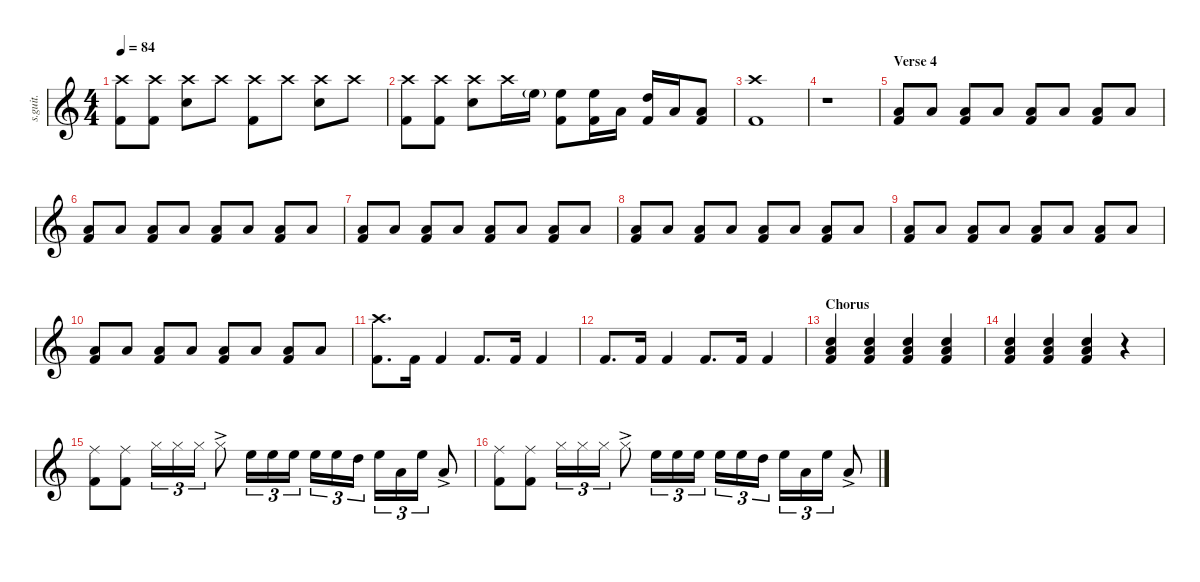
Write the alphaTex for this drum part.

\defaultSystemsLayout 4
\hideDynamics
\bracketExtendMode nobrackets
\track ("Ringo Starr - Drums" "s.guit.") {instrument percussion}
\staff {score}
\articulation defaults
\ts (4 4)
\tempo 84
\clef g2
\ks c
("Crash high (hit)" "Kick (hit) 2").8{lyrics (0 "") lyrics (1 "") lyrics (2 "") lyrics (3 "") lyrics (4 "") dy f} ("Kick (hit) 2" "Crash high (hit)").8{lyrics (0 "") lyrics (1 "") lyrics (2 "") lyrics (3 "") lyrics (4 "")} ("Crash high (hit)" "Snare (hit) 2").8{lyrics (0 "") lyrics (1 "") lyrics (2 "") lyrics (3 "") lyrics (4 "")} "Crash high (hit)".8{lyrics (0 "") lyrics (1 "") lyrics (2 "") lyrics (3 "") lyrics (4 "") dy mf} ("Crash high (hit)" "Kick (hit) 2").8{lyrics (0 "") lyrics (1 "") lyrics (2 "") lyrics (3 "") lyrics (4 "") dy f} "Crash high (hit)".8{lyrics (0 "") lyrics (1 "") lyrics (2 "") lyrics (3 "") lyrics (4 "") dy mf} ("Crash high (hit)" "Snare (hit) 2").8{lyrics (0 "") lyrics (1 "") lyrics (2 "") lyrics (3 "") lyrics (4 "") dy f} "Crash high (hit)".8{lyrics (0 "") lyrics (1 "") lyrics (2 "") lyrics (3 "") lyrics (4 "") dy mf} |
("Crash high (hit)" "Kick (hit) 2").8{lyrics (0 "") lyrics (1 "") lyrics (2 "") lyrics (3 "") lyrics (4 "") dy f} ("Kick (hit) 2" "Crash high (hit)").8{lyrics (0 "") lyrics (1 "") lyrics (2 "") lyrics (3 "") lyrics (4 "")} ("Crash high (hit)" "Snare (hit) 2").8{lyrics (0 "") lyrics (1 "") lyrics (2 "") lyrics (3 "") lyrics (4 "")} "Crash high (hit)".16{lyrics (0 "") lyrics (1 "") lyrics (2 "") lyrics (3 "") lyrics (4 "") dy mf} "High Floor Tom (hit)"{g}.16{lyrics (0 "") lyrics (1 "") lyrics (2 "") lyrics (3 "") lyrics (4 "") dy p} ("Kick (hit) 2" "High Floor Tom (hit)").8{lyrics (0 "") lyrics (1 "") lyrics (2 "") lyrics (3 "") lyrics (4 "")} ("Kick (hit) 2" "High Floor Tom (hit)").16{lyrics (0 "") lyrics (1 "") lyrics (2 "") lyrics (3 "") lyrics (4 "") dy mf} "Low Tom (hit)".16{lyrics (0 "") lyrics (1 "") lyrics (2 "") lyrics (3 "") lyrics (4 "")} ("Kick (hit) 2" "High Tom (hit)").16{lyrics (0 "") lyrics (1 "") lyrics (2 "") lyrics (3 "") lyrics (4 "")} "Low Tom (hit)".16{lyrics (0 "") lyrics (1 "") lyrics (2 "") lyrics (3 "") lyrics (4 "")} ("Kick (hit) 2" "Low Tom (hit)").8{lyrics (0 "") lyrics (1 "") lyrics (2 "") lyrics (3 "") lyrics (4 "")} |
("Crash high (hit)" "Kick (hit) 2").1{lyrics (0 "") lyrics (1 "") lyrics (2 "") lyrics (3 "") lyrics (4 "") dy f} |
r.1 |
\section ("" "Verse 4")
("Kick (hit) 2" "Low Tom (hit)").8{lyrics (0 "") lyrics (1 "") lyrics (2 "") lyrics (3 "") lyrics (4 "")} "Low Tom (hit)".8{lyrics (0 "") lyrics (1 "") lyrics (2 "") lyrics (3 "") lyrics (4 "")} ("Kick (hit) 2" "Low Tom (hit)").8{lyrics (0 "") lyrics (1 "") lyrics (2 "") lyrics (3 "") lyrics (4 "")} "Low Tom (hit)".8{lyrics (0 "") lyrics (1 "") lyrics (2 "") lyrics (3 "") lyrics (4 "")} ("Kick (hit) 2" "Low Tom (hit)").8{lyrics (0 "") lyrics (1 "") lyrics (2 "") lyrics (3 "") lyrics (4 "")} "Low Tom (hit)".8{lyrics (0 "") lyrics (1 "") lyrics (2 "") lyrics (3 "") lyrics (4 "")} ("Kick (hit) 2" "Low Tom (hit)").8{lyrics (0 "") lyrics (1 "") lyrics (2 "") lyrics (3 "") lyrics (4 "")} "Low Tom (hit)".8{lyrics (0 "") lyrics (1 "") lyrics (2 "") lyrics (3 "") lyrics (4 "")} |
("Kick (hit) 2" "Low Tom (hit)").8{lyrics (0 "") lyrics (1 "") lyrics (2 "") lyrics (3 "") lyrics (4 "")} "Low Tom (hit)".8{lyrics (0 "") lyrics (1 "") lyrics (2 "") lyrics (3 "") lyrics (4 "")} ("Kick (hit) 2" "Low Tom (hit)").8{lyrics (0 "") lyrics (1 "") lyrics (2 "") lyrics (3 "") lyrics (4 "")} "Low Tom (hit)".8{lyrics (0 "") lyrics (1 "") lyrics (2 "") lyrics (3 "") lyrics (4 "")} ("Kick (hit) 2" "Low Tom (hit)").8{lyrics (0 "") lyrics (1 "") lyrics (2 "") lyrics (3 "") lyrics (4 "")} "Low Tom (hit)".8{lyrics (0 "") lyrics (1 "") lyrics (2 "") lyrics (3 "") lyrics (4 "")} ("Kick (hit) 2" "Low Tom (hit)").8{lyrics (0 "") lyrics (1 "") lyrics (2 "") lyrics (3 "") lyrics (4 "")} "Low Tom (hit)".8{lyrics (0 "") lyrics (1 "") lyrics (2 "") lyrics (3 "") lyrics (4 "")} |
("Kick (hit) 2" "Low Tom (hit)").8{lyrics (0 "") lyrics (1 "") lyrics (2 "") lyrics (3 "") lyrics (4 "")} "Low Tom (hit)".8{lyrics (0 "") lyrics (1 "") lyrics (2 "") lyrics (3 "") lyrics (4 "")} ("Kick (hit) 2" "Low Tom (hit)").8{lyrics (0 "") lyrics (1 "") lyrics (2 "") lyrics (3 "") lyrics (4 "")} "Low Tom (hit)".8{lyrics (0 "") lyrics (1 "") lyrics (2 "") lyrics (3 "") lyrics (4 "")} ("Kick (hit) 2" "Low Tom (hit)").8{lyrics (0 "") lyrics (1 "") lyrics (2 "") lyrics (3 "") lyrics (4 "")} "Low Tom (hit)".8{lyrics (0 "") lyrics (1 "") lyrics (2 "") lyrics (3 "") lyrics (4 "")} ("Kick (hit) 2" "Low Tom (hit)").8{lyrics (0 "") lyrics (1 "") lyrics (2 "") lyrics (3 "") lyrics (4 "")} "Low Tom (hit)".8{lyrics (0 "") lyrics (1 "") lyrics (2 "") lyrics (3 "") lyrics (4 "")} |
("Kick (hit) 2" "Low Tom (hit)").8{lyrics (0 "") lyrics (1 "") lyrics (2 "") lyrics (3 "") lyrics (4 "")} "Low Tom (hit)".8{lyrics (0 "") lyrics (1 "") lyrics (2 "") lyrics (3 "") lyrics (4 "")} ("Kick (hit) 2" "Low Tom (hit)").8{lyrics (0 "") lyrics (1 "") lyrics (2 "") lyrics (3 "") lyrics (4 "")} "Low Tom (hit)".8{lyrics (0 "") lyrics (1 "") lyrics (2 "") lyrics (3 "") lyrics (4 "")} ("Kick (hit) 2" "Low Tom (hit)").8{lyrics (0 "") lyrics (1 "") lyrics (2 "") lyrics (3 "") lyrics (4 "")} "Low Tom (hit)".8{lyrics (0 "") lyrics (1 "") lyrics (2 "") lyrics (3 "") lyrics (4 "")} ("Kick (hit) 2" "Low Tom (hit)").8{lyrics (0 "") lyrics (1 "") lyrics (2 "") lyrics (3 "") lyrics (4 "")} "Low Tom (hit)".8{lyrics (0 "") lyrics (1 "") lyrics (2 "") lyrics (3 "") lyrics (4 "")} |
("Kick (hit) 2" "Low Tom (hit)").8{lyrics (0 "") lyrics (1 "") lyrics (2 "") lyrics (3 "") lyrics (4 "")} "Low Tom (hit)".8{lyrics (0 "") lyrics (1 "") lyrics (2 "") lyrics (3 "") lyrics (4 "")} ("Kick (hit) 2" "Low Tom (hit)").8{lyrics (0 "") lyrics (1 "") lyrics (2 "") lyrics (3 "") lyrics (4 "")} "Low Tom (hit)".8{lyrics (0 "") lyrics (1 "") lyrics (2 "") lyrics (3 "") lyrics (4 "")} ("Kick (hit) 2" "Low Tom (hit)").8{lyrics (0 "") lyrics (1 "") lyrics (2 "") lyrics (3 "") lyrics (4 "")} "Low Tom (hit)".8{lyrics (0 "") lyrics (1 "") lyrics (2 "") lyrics (3 "") lyrics (4 "")} ("Kick (hit) 2" "Low Tom (hit)").8{lyrics (0 "") lyrics (1 "") lyrics (2 "") lyrics (3 "") lyrics (4 "")} "Low Tom (hit)".8{lyrics (0 "") lyrics (1 "") lyrics (2 "") lyrics (3 "") lyrics (4 "")} |
("Kick (hit) 2" "Low Tom (hit)").8{lyrics (0 "") lyrics (1 "") lyrics (2 "") lyrics (3 "") lyrics (4 "")} "Low Tom (hit)".8{lyrics (0 "") lyrics (1 "") lyrics (2 "") lyrics (3 "") lyrics (4 "")} ("Kick (hit) 2" "Low Tom (hit)").8{lyrics (0 "") lyrics (1 "") lyrics (2 "") lyrics (3 "") lyrics (4 "")} "Low Tom (hit)".8{lyrics (0 "") lyrics (1 "") lyrics (2 "") lyrics (3 "") lyrics (4 "")} ("Kick (hit) 2" "Low Tom (hit)").8{lyrics (0 "") lyrics (1 "") lyrics (2 "") lyrics (3 "") lyrics (4 "")} "Low Tom (hit)".8{lyrics (0 "") lyrics (1 "") lyrics (2 "") lyrics (3 "") lyrics (4 "")} ("Kick (hit) 2" "Low Tom (hit)").8{lyrics (0 "") lyrics (1 "") lyrics (2 "") lyrics (3 "") lyrics (4 "")} "Low Tom (hit)".8{lyrics (0 "") lyrics (1 "") lyrics (2 "") lyrics (3 "") lyrics (4 "")} |
("Kick (hit) 2" "Crash high (hit)").8{d lyrics (0 "") lyrics (1 "") lyrics (2 "") lyrics (3 "") lyrics (4 "")} "Kick (hit) 2".16{lyrics (0 "") lyrics (1 "") lyrics (2 "") lyrics (3 "") lyrics (4 "")} "Kick (hit) 2".4{lyrics (0 "") lyrics (1 "") lyrics (2 "") lyrics (3 "") lyrics (4 "")} "Kick (hit) 2".8{d lyrics (0 "") lyrics (1 "") lyrics (2 "") lyrics (3 "") lyrics (4 "")} "Kick (hit) 2".16{lyrics (0 "") lyrics (1 "") lyrics (2 "") lyrics (3 "") lyrics (4 "")} "Kick (hit) 2".4{lyrics (0 "") lyrics (1 "") lyrics (2 "") lyrics (3 "") lyrics (4 "")} |
"Kick (hit) 2".8{d lyrics (0 "") lyrics (1 "") lyrics (2 "") lyrics (3 "") lyrics (4 "")} "Kick (hit) 2".16{lyrics (0 "") lyrics (1 "") lyrics (2 "") lyrics (3 "") lyrics (4 "")} "Kick (hit) 2".4{lyrics (0 "") lyrics (1 "") lyrics (2 "") lyrics (3 "") lyrics (4 "")} "Kick (hit) 2".8{d lyrics (0 "") lyrics (1 "") lyrics (2 "") lyrics (3 "") lyrics (4 "")} "Kick (hit) 2".16{lyrics (0 "") lyrics (1 "") lyrics (2 "") lyrics (3 "") lyrics (4 "")} "Kick (hit) 2".4{lyrics (0 "") lyrics (1 "") lyrics (2 "") lyrics (3 "") lyrics (4 "")} |
\section ("" "Chorus")
("Kick (hit) 2" "Snare (hit) 2" "Low Tom (hit)").4{lyrics (0 "") lyrics (1 "") lyrics (2 "") lyrics (3 "") lyrics (4 "")} ("Kick (hit) 2" "Snare (hit) 2" "Low Tom (hit)").4{lyrics (0 "") lyrics (1 "") lyrics (2 "") lyrics (3 "") lyrics (4 "")} ("Kick (hit) 2" "Snare (hit) 2" "Low Tom (hit)").4{lyrics (0 "") lyrics (1 "") lyrics (2 "") lyrics (3 "") lyrics (4 "")} ("Kick (hit) 2" "Snare (hit) 2" "Low Tom (hit)").4{lyrics (0 "") lyrics (1 "") lyrics (2 "") lyrics (3 "") lyrics (4 "")} |
("Kick (hit) 2" "Snare (hit) 2" "Low Tom (hit)").4{lyrics (0 "") lyrics (1 "") lyrics (2 "") lyrics (3 "") lyrics (4 "")} ("Kick (hit) 2" "Snare (hit) 2" "Low Tom (hit)").4{lyrics (0 "") lyrics (1 "") lyrics (2 "") lyrics (3 "") lyrics (4 "")} ("Kick (hit) 2" "Snare (hit) 2" "Low Tom (hit)").4{lyrics (0 "") lyrics (1 "") lyrics (2 "") lyrics (3 "") lyrics (4 "")} r.4 |
("Ride (middle)" "Kick (hit) 2").8{lyrics (0 "") lyrics (1 "") lyrics (2 "") lyrics (3 "") lyrics (4 "")} ("Ride (middle)" "Kick (hit) 2").8{lyrics (0 "") lyrics (1 "") lyrics (2 "") lyrics (3 "") lyrics (4 "")} "Hi-Hat (closed)".16{tu (3 2) lyrics (0 "") lyrics (1 "") lyrics (2 "") lyrics (3 "") lyrics (4 "")} "Hi-Hat (closed)".16{tu (3 2) lyrics (0 "") lyrics (1 "") lyrics (2 "") lyrics (3 "") lyrics (4 "")} "Hi-Hat (closed)".16{tu (3 2) lyrics (0 "") lyrics (1 "") lyrics (2 "") lyrics (3 "") lyrics (4 "")} "Hi-Hat (closed)"{ac}.8{lyrics (0 "") lyrics (1 "") lyrics (2 "") lyrics (3 "") lyrics (4 "")} "High Floor Tom (hit)".16{tu (3 2) lyrics (0 "") lyrics (1 "") lyrics (2 "") lyrics (3 "") lyrics (4 "")} "High Floor Tom (hit)".16{tu (3 2) lyrics (0 "") lyrics (1 "") lyrics (2 "") lyrics (3 "") lyrics (4 "")} "High Floor Tom (hit)".16{tu (3 2) lyrics (0 "") lyrics (1 "") lyrics (2 "") lyrics (3 "") lyrics (4 "")} "High Floor Tom (hit)".16{tu (3 2) lyrics (0 "") lyrics (1 "") lyrics (2 "") lyrics (3 "") lyrics (4 "")} "High Floor Tom (hit)".16{tu (3 2) lyrics (0 "") lyrics (1 "") lyrics (2 "") lyrics (3 "") lyrics (4 "")} "High Tom (hit)".16{tu (3 2) lyrics (0 "") lyrics (1 "") lyrics (2 "") lyrics (3 "") lyrics (4 "")} "High Floor Tom (hit)".16{tu (3 2) lyrics (0 "") lyrics (1 "") lyrics (2 "") lyrics (3 "") lyrics (4 "")} "Low Tom (hit)".16{tu (3 2) lyrics (0 "") lyrics (1 "") lyrics (2 "") lyrics (3 "") lyrics (4 "")} "High Floor Tom (hit)".16{tu (3 2) lyrics (0 "") lyrics (1 "") lyrics (2 "") lyrics (3 "") lyrics (4 "")} "Low Tom (hit)"{ac}.8{lyrics (0 "") lyrics (1 "") lyrics (2 "") lyrics (3 "") lyrics (4 "")} |
("Ride (middle)" "Kick (hit) 2").8{lyrics (0 "") lyrics (1 "") lyrics (2 "") lyrics (3 "") lyrics (4 "")} ("Ride (middle)" "Kick (hit) 2").8{lyrics (0 "") lyrics (1 "") lyrics (2 "") lyrics (3 "") lyrics (4 "")} "Hi-Hat (closed)".16{tu (3 2) lyrics (0 "") lyrics (1 "") lyrics (2 "") lyrics (3 "") lyrics (4 "")} "Hi-Hat (closed)".16{tu (3 2) lyrics (0 "") lyrics (1 "") lyrics (2 "") lyrics (3 "") lyrics (4 "")} "Hi-Hat (closed)".16{tu (3 2) lyrics (0 "") lyrics (1 "") lyrics (2 "") lyrics (3 "") lyrics (4 "")} "Hi-Hat (closed)"{ac}.8{lyrics (0 "") lyrics (1 "") lyrics (2 "") lyrics (3 "") lyrics (4 "")} "High Floor Tom (hit)".16{tu (3 2) lyrics (0 "") lyrics (1 "") lyrics (2 "") lyrics (3 "") lyrics (4 "")} "High Floor Tom (hit)".16{tu (3 2) lyrics (0 "") lyrics (1 "") lyrics (2 "") lyrics (3 "") lyrics (4 "")} "High Floor Tom (hit)".16{tu (3 2) lyrics (0 "") lyrics (1 "") lyrics (2 "") lyrics (3 "") lyrics (4 "")} "High Floor Tom (hit)".16{tu (3 2) lyrics (0 "") lyrics (1 "") lyrics (2 "") lyrics (3 "") lyrics (4 "")} "High Floor Tom (hit)".16{tu (3 2) lyrics (0 "") lyrics (1 "") lyrics (2 "") lyrics (3 "") lyrics (4 "")} "High Tom (hit)".16{tu (3 2) lyrics (0 "") lyrics (1 "") lyrics (2 "") lyrics (3 "") lyrics (4 "")} "High Floor Tom (hit)".16{tu (3 2) lyrics (0 "") lyrics (1 "") lyrics (2 "") lyrics (3 "") lyrics (4 "")} "Low Tom (hit)".16{tu (3 2) lyrics (0 "") lyrics (1 "") lyrics (2 "") lyrics (3 "") lyrics (4 "")} "High Floor Tom (hit)".16{tu (3 2) lyrics (0 "") lyrics (1 "") lyrics (2 "") lyrics (3 "") lyrics (4 "")} "Low Tom (hit)"{ac}.8{lyrics (0 "") lyrics (1 "") lyrics (2 "") lyrics (3 "") lyrics (4 "")}
